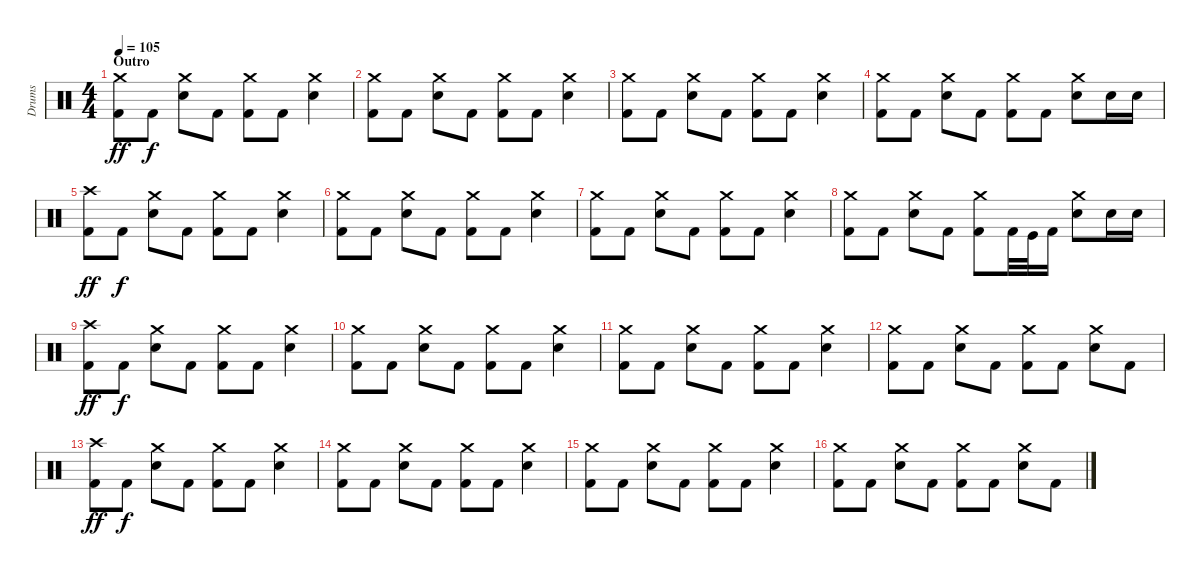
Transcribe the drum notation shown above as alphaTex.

\track ("Drums" "Drums") {instrument percussion}
\staff {score}
\articulation defaults
\ts (4 4)
\section ("" "Outro")
\tempo 105
\clef neutral
\ks c
("Crash medium (hit)" "Kick (hit) 2").8{dy ff} "Kick (hit) 2".8{dy f} ("Crash medium (hit)" "Snare (hit) 2").8 "Kick (hit) 2".8 ("Crash medium (hit)" "Kick (hit) 2").8 "Kick (hit) 2".8 ("Crash medium (hit)" "Snare (hit) 2").4 |
("Crash medium (hit)" "Kick (hit) 2").8 "Kick (hit) 2".8 ("Crash medium (hit)" "Snare (hit) 2").8 "Kick (hit) 2".8 ("Crash medium (hit)" "Kick (hit) 2").8 "Kick (hit) 2".8 ("Crash medium (hit)" "Snare (hit) 2").4 |
("Crash medium (hit)" "Kick (hit) 2").8 "Kick (hit) 2".8 ("Crash medium (hit)" "Snare (hit) 2").8 "Kick (hit) 2".8 ("Crash medium (hit)" "Kick (hit) 2").8 "Kick (hit) 2".8 ("Crash medium (hit)" "Snare (hit) 2").4 |
("Crash medium (hit)" "Kick (hit) 2").8 "Kick (hit) 2".8 ("Crash medium (hit)" "Snare (hit) 2").8 "Kick (hit) 2".8 ("Crash medium (hit)" "Kick (hit) 2").8 "Kick (hit) 2".8 ("Crash medium (hit)" "Snare (hit) 2").8 "Snare (hit) 2".16 "Snare (hit) 2".16 |
("Crash high (hit)" "Kick (hit) 2").8{dy ff} "Kick (hit) 2".8{dy f} ("Crash medium (hit)" "Snare (hit) 2").8 "Kick (hit) 2".8 ("Crash medium (hit)" "Kick (hit) 2").8 "Kick (hit) 2".8 ("Crash medium (hit)" "Snare (hit) 2").4 |
("Crash medium (hit)" "Kick (hit) 2").8 "Kick (hit) 2".8 ("Crash medium (hit)" "Snare (hit) 2").8 "Kick (hit) 2".8 ("Crash medium (hit)" "Kick (hit) 2").8 "Kick (hit) 2".8 ("Crash medium (hit)" "Snare (hit) 2").4 |
("Crash medium (hit)" "Kick (hit) 2").8 "Kick (hit) 2".8 ("Crash medium (hit)" "Snare (hit) 2").8 "Kick (hit) 2".8 ("Crash medium (hit)" "Kick (hit) 2").8 "Kick (hit) 2".8 ("Crash medium (hit)" "Snare (hit) 2").4 |
("Crash medium (hit)" "Kick (hit) 2").8 "Kick (hit) 2".8 ("Crash medium (hit)" "Snare (hit) 2").8 "Kick (hit) 2".8 ("Crash medium (hit)" "Kick (hit) 2").8 "Kick (hit) 2".32 "Kick (hit)".32 "Kick (hit) 2".16 ("Crash medium (hit)" "Snare (hit) 2").8 "Snare (hit) 2".16 "Snare (hit) 2".16 |
("Crash high (hit)" "Kick (hit) 2").8{dy ff} "Kick (hit) 2".8{dy f} ("Crash medium (hit)" "Snare (hit) 2").8 "Kick (hit) 2".8 ("Crash medium (hit)" "Kick (hit) 2").8 "Kick (hit) 2".8 ("Crash medium (hit)" "Snare (hit) 2").4 |
("Crash medium (hit)" "Kick (hit) 2").8 "Kick (hit) 2".8 ("Crash medium (hit)" "Snare (hit) 2").8 "Kick (hit) 2".8 ("Crash medium (hit)" "Kick (hit) 2").8 "Kick (hit) 2".8 ("Crash medium (hit)" "Snare (hit) 2").4 |
("Crash medium (hit)" "Kick (hit) 2").8 "Kick (hit) 2".8 ("Crash medium (hit)" "Snare (hit) 2").8 "Kick (hit) 2".8 ("Crash medium (hit)" "Kick (hit) 2").8 "Kick (hit) 2".8 ("Crash medium (hit)" "Snare (hit) 2").4 |
("Crash medium (hit)" "Kick (hit) 2").8 "Kick (hit) 2".8 ("Crash medium (hit)" "Snare (hit) 2").8 "Kick (hit) 2".8 ("Crash medium (hit)" "Kick (hit) 2").8 "Kick (hit) 2".8 ("Crash medium (hit)" "Snare (hit) 2").8 "Kick (hit) 2".8 |
("Crash high (hit)" "Kick (hit) 2").8{dy ff} "Kick (hit) 2".8{dy f} ("Crash medium (hit)" "Snare (hit) 2").8 "Kick (hit) 2".8 ("Crash medium (hit)" "Kick (hit) 2").8 "Kick (hit) 2".8 ("Crash medium (hit)" "Snare (hit) 2").4 |
("Crash medium (hit)" "Kick (hit) 2").8 "Kick (hit) 2".8 ("Crash medium (hit)" "Snare (hit) 2").8 "Kick (hit) 2".8 ("Crash medium (hit)" "Kick (hit) 2").8 "Kick (hit) 2".8 ("Crash medium (hit)" "Snare (hit) 2").4 |
("Crash medium (hit)" "Kick (hit) 2").8 "Kick (hit) 2".8 ("Crash medium (hit)" "Snare (hit) 2").8 "Kick (hit) 2".8 ("Crash medium (hit)" "Kick (hit) 2").8 "Kick (hit) 2".8 ("Crash medium (hit)" "Snare (hit) 2").4 |
("Crash medium (hit)" "Kick (hit) 2").8 "Kick (hit) 2".8 ("Crash medium (hit)" "Snare (hit) 2").8 "Kick (hit) 2".8 ("Crash medium (hit)" "Kick (hit) 2").8 "Kick (hit) 2".8 ("Crash medium (hit)" "Snare (hit) 2").8 "Kick (hit) 2".8
